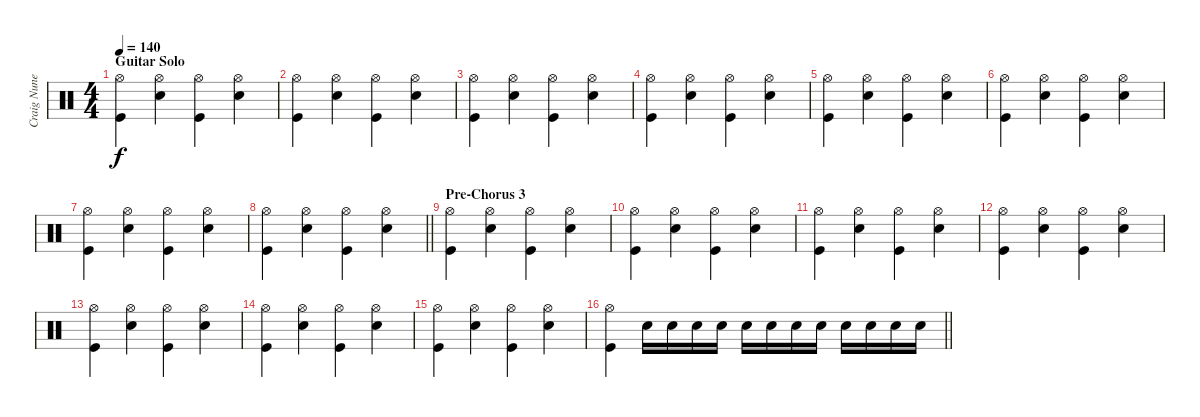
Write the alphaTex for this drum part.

\track ("Craig Nunenmacher" "Craig Nune") {instrument percussion}
\staff {score}
\articulation defaults
\ts (4 4)
\section ("" "Guitar Solo")
\tempo 140
\clef neutral
\ks c
("Hi-Hat (open)" "Kick (hit)").4{dy f} ("Snare (hit) 2" "Hi-Hat (open)").4 ("Hi-Hat (open)" "Kick (hit)").4 ("Snare (hit) 2" "Hi-Hat (open)").4 |
("Hi-Hat (open)" "Kick (hit)").4 ("Snare (hit) 2" "Hi-Hat (open)").4 ("Hi-Hat (open)" "Kick (hit)").4 ("Snare (hit) 2" "Hi-Hat (open)").4 |
("Hi-Hat (open)" "Kick (hit)").4 ("Snare (hit) 2" "Hi-Hat (open)").4 ("Hi-Hat (open)" "Kick (hit)").4 ("Snare (hit) 2" "Hi-Hat (open)").4 |
("Hi-Hat (open)" "Kick (hit)").4 ("Snare (hit) 2" "Hi-Hat (open)").4 ("Hi-Hat (open)" "Kick (hit)").4 ("Snare (hit) 2" "Hi-Hat (open)").4 |
("Hi-Hat (open)" "Kick (hit)").4 ("Snare (hit) 2" "Hi-Hat (open)").4 ("Hi-Hat (open)" "Kick (hit)").4 ("Snare (hit) 2" "Hi-Hat (open)").4 |
("Hi-Hat (open)" "Kick (hit)").4 ("Snare (hit) 2" "Hi-Hat (open)").4 ("Hi-Hat (open)" "Kick (hit)").4 ("Snare (hit) 2" "Hi-Hat (open)").4 |
("Hi-Hat (open)" "Kick (hit)").4 ("Snare (hit) 2" "Hi-Hat (open)").4 ("Hi-Hat (open)" "Kick (hit)").4 ("Snare (hit) 2" "Hi-Hat (open)").4 |
\barLineRight lightlight
("Hi-Hat (open)" "Kick (hit)").4 ("Snare (hit) 2" "Hi-Hat (open)").4 ("Hi-Hat (open)" "Kick (hit)").4 ("Snare (hit) 2" "Hi-Hat (open)").4 |
\section ("" "Pre-Chorus 3")
("Hi-Hat (open)" "Kick (hit)").4 ("Snare (hit) 2" "Hi-Hat (open)").4 ("Hi-Hat (open)" "Kick (hit)").4 ("Snare (hit) 2" "Hi-Hat (open)").4 |
("Hi-Hat (open)" "Kick (hit)").4 ("Snare (hit) 2" "Hi-Hat (open)").4 ("Hi-Hat (open)" "Kick (hit)").4 ("Snare (hit) 2" "Hi-Hat (open)").4 |
("Hi-Hat (open)" "Kick (hit)").4 ("Snare (hit) 2" "Hi-Hat (open)").4 ("Hi-Hat (open)" "Kick (hit)").4 ("Snare (hit) 2" "Hi-Hat (open)").4 |
("Hi-Hat (open)" "Kick (hit)").4 ("Snare (hit) 2" "Hi-Hat (open)").4 ("Hi-Hat (open)" "Kick (hit)").4 ("Snare (hit) 2" "Hi-Hat (open)").4 |
("Hi-Hat (open)" "Kick (hit)").4 ("Snare (hit) 2" "Hi-Hat (open)").4 ("Hi-Hat (open)" "Kick (hit)").4 ("Snare (hit) 2" "Hi-Hat (open)").4 |
("Hi-Hat (open)" "Kick (hit)").4 ("Snare (hit) 2" "Hi-Hat (open)").4 ("Hi-Hat (open)" "Kick (hit)").4 ("Snare (hit) 2" "Hi-Hat (open)").4 |
("Hi-Hat (open)" "Kick (hit)").4 ("Snare (hit) 2" "Hi-Hat (open)").4 ("Hi-Hat (open)" "Kick (hit)").4 ("Snare (hit) 2" "Hi-Hat (open)").4 |
\barLineRight lightlight
("Hi-Hat (open)" "Kick (hit)").4 "Snare (hit) 2".16 "Snare (hit) 2".16 "Snare (hit) 2".16 "Snare (hit) 2".16 "Snare (hit) 2".16 "Snare (hit) 2".16 "Snare (hit) 2".16 "Snare (hit) 2".16 "Snare (hit) 2".16 "Snare (hit) 2".16 "Snare (hit) 2".16 "Snare (hit) 2".16
